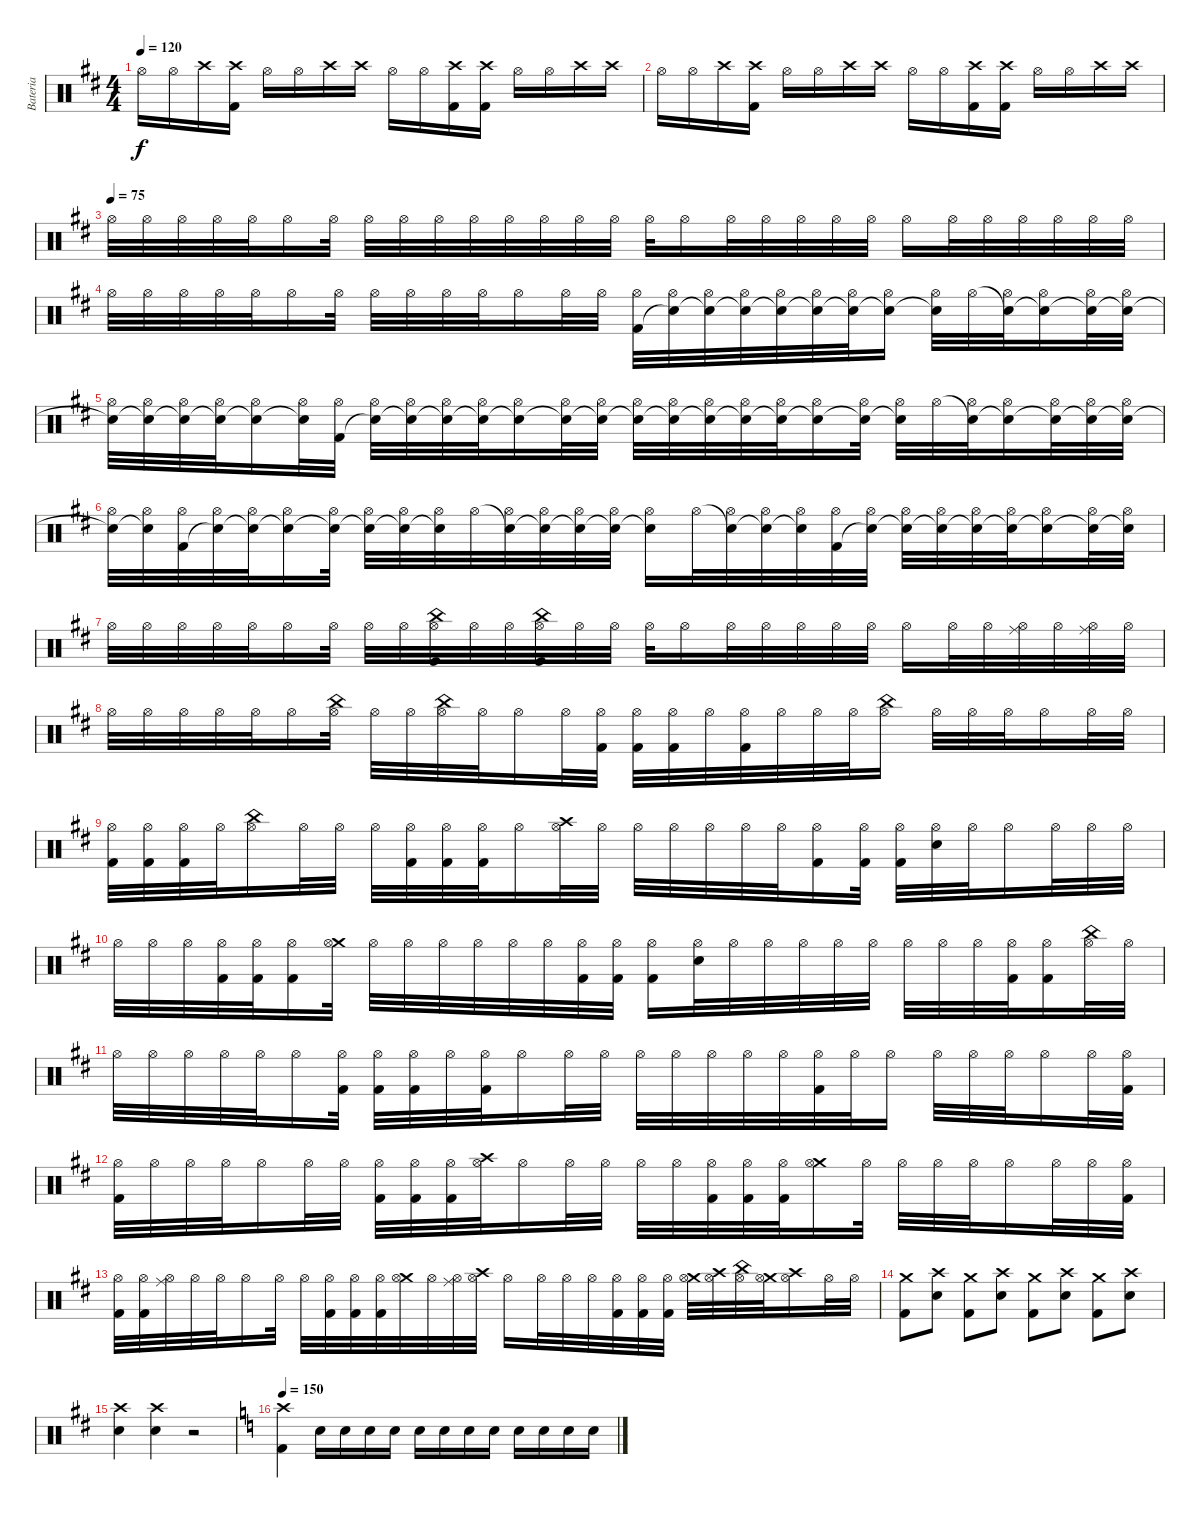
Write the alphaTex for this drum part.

\track ("Bateria" "Bateria") {instrument percussion}
\staff {score}
\articulation defaults
\ts (4 4)
\tempo 120
\clef neutral
\ks d "Hi-Hat (open)".16{dy f} "Hi-Hat (open)".16 "Crash high (hit)".16
("Kick (hit) 2" "Crash high (hit)").16 "Hi-Hat (open)".16 "Hi-Hat (open)".16 "Crash high (hit)".16 "Crash high (hit)".16 "Hi-Hat (open)".16 "Hi-Hat (open)".16 ("Kick (hit) 2" "Crash high (hit)").16 ("Kick (hit) 2" "Crash high (hit)").16 "Hi-Hat (open)".16 "Hi-Hat (open)".16 "Crash high (hit)".16 "Crash high (hit)".16 |
"Hi-Hat (open)".16 "Hi-Hat (open)".16 "Crash high (hit)".16 ("Kick (hit) 2" "Crash high (hit)").16 "Hi-Hat (open)".16 "Hi-Hat (open)".16 "Crash high (hit)".16 "Crash high (hit)".16 "Hi-Hat (open)".16 "Hi-Hat (open)".16 ("Kick (hit) 2" "Crash high (hit)").16 ("Kick (hit) 2" "Crash high (hit)").16 "Hi-Hat (open)".16 "Hi-Hat (open)".16 "Crash high (hit)".16 "Crash high (hit)".16 |
\tempo (75)
"Hi-Hat (open)".32{balance 8} "Hi-Hat (open)".32 "Hi-Hat (open)".32 "Hi-Hat (open)".32 "Hi-Hat (open)".32 "Hi-Hat (open)".16 "Hi-Hat (open)".32 "Hi-Hat (open)".32 "Hi-Hat (open)".32 "Hi-Hat (open)".32 "Hi-Hat (open)".32 "Hi-Hat (open)".32 "Hi-Hat (open)".32 "Hi-Hat (open)".32 "Hi-Hat (open)".32 "Hi-Hat (open)".32 "Hi-Hat (open)".16 "Hi-Hat (open)".32 "Hi-Hat (open)".32 "Hi-Hat (open)".32 "Hi-Hat (open)".32 "Hi-Hat (open)".32 "Hi-Hat (open)".16 "Hi-Hat (open)".32 "Hi-Hat (open)".32 "Hi-Hat (open)".32 "Hi-Hat (open)".32 "Hi-Hat (open)".32 "Hi-Hat (open)".32 |
"Hi-Hat (open)".32 "Hi-Hat (open)".32 "Hi-Hat (open)".32 "Hi-Hat (open)".32 "Hi-Hat (open)".32 "Hi-Hat (open)".16 "Hi-Hat (open)".32 "Hi-Hat (open)".32 "Hi-Hat (open)".32 "Hi-Hat (open)".32 "Hi-Hat (open)".32 "Hi-Hat (open)".16 "Hi-Hat (open)".32 "Hi-Hat (open)".32 ("Kick (hit) 2" "Hi-Hat (open)").32 ("Snare (hit)"{t} "Hi-Hat (open)").32 ("Snare (hit)"{t} "Hi-Hat (open)").32 ("Snare (hit)"{t} "Hi-Hat (open)").32 ("Snare (hit)"{t} "Hi-Hat (open)").32 ("Snare (hit)"{t} "Hi-Hat (open)").32 ("Snare (hit)"{t} "Hi-Hat (open)").32 ("Snare (hit)"{t} "Hi-Hat (open)").16 ("Snare (hit)"{t} "Hi-Hat (open)").32 "Hi-Hat (open)".32 ("Snare (hit)"{t} "Hi-Hat (open)").32 ("Snare (hit)"{t} "Hi-Hat (open)").16 ("Snare (hit)"{t} "Hi-Hat (open)").32 ("Snare (hit)"{t} "Hi-Hat (open)").32 |
("Snare (hit)"{t} "Hi-Hat (open)").32 ("Snare (hit)"{t} "Hi-Hat (open)").32 ("Snare (hit)"{t} "Hi-Hat (open)").32 ("Snare (hit)"{t} "Hi-Hat (open)").32 ("Snare (hit)"{t} "Hi-Hat (open)").16 ("Snare (hit)"{t} "Hi-Hat (open)").32 ("Kick (hit) 2" "Hi-Hat (open)").32 ("Snare (hit)"{t} "Hi-Hat (open)").32 ("Snare (hit)"{t} "Hi-Hat (open)").32 ("Snare (hit)"{t} "Hi-Hat (open)").32 ("Snare (hit)"{t} "Hi-Hat (open)").32 ("Snare (hit)"{t} "Hi-Hat (open)").16 ("Snare (hit)"{t} "Hi-Hat (open)").32 ("Snare (hit)"{t} "Hi-Hat (open)").32 ("Snare (hit)"{t} "Hi-Hat (open)").32 ("Snare (hit)"{t} "Hi-Hat (open)").32 ("Snare (hit)"{t} "Hi-Hat (open)").32 ("Snare (hit)"{t} "Hi-Hat (open)").32 ("Snare (hit)"{t} "Hi-Hat (open)").32 ("Snare (hit)"{t} "Hi-Hat (open)").16 ("Snare (hit)"{t} "Hi-Hat (open)").32 ("Snare (hit)"{t} "Hi-Hat (open)").32 "Hi-Hat (open)".32 ("Snare (hit)"{t} "Hi-Hat (open)").32 ("Snare (hit)"{t} "Hi-Hat (open)").16 ("Snare (hit)"{t} "Hi-Hat (open)").32 ("Snare (hit)"{t} "Hi-Hat (open)").32 ("Snare (hit)"{t} "Hi-Hat (open)").32 |
("Snare (hit)"{t} "Hi-Hat (open)").32 ("Snare (hit)"{t} "Hi-Hat (open)").32 ("Kick (hit) 2" "Hi-Hat (open)").32 ("Snare (hit)"{t} "Hi-Hat (open)").32 ("Snare (hit)"{t} "Hi-Hat (open)").32 ("Snare (hit)"{t} "Hi-Hat (open)").16 ("Snare (hit)"{t} "Hi-Hat (open)").32 ("Snare (hit)"{t} "Hi-Hat (open)").32 ("Snare (hit)"{t} "Hi-Hat (open)").32 ("Snare (hit)"{t} "Hi-Hat (open)").32 "Hi-Hat (open)".32 ("Snare (hit)"{t} "Hi-Hat (open)").32 ("Snare (hit)"{t} "Hi-Hat (open)").32 ("Snare (hit)"{t} "Hi-Hat (open)").32 ("Snare (hit)"{t} "Hi-Hat (open)").32 ("Snare (hit)"{t} "Hi-Hat (open)").16 "Hi-Hat (open)".32 ("Snare (hit)"{t} "Hi-Hat (open)").32 ("Snare (hit)"{t} "Hi-Hat (open)").32 ("Snare (hit)"{t} "Hi-Hat (open)").32 ("Kick (hit) 2" "Hi-Hat (open)").32 ("Snare (hit)"{t} "Hi-Hat (open)").32 ("Snare (hit)"{t} "Hi-Hat (open)").32 ("Snare (hit)"{t} "Hi-Hat (open)").32 ("Snare (hit)"{t} "Hi-Hat (open)").32 ("Snare (hit)"{t} "Hi-Hat (open)").32 ("Snare (hit)"{t} "Hi-Hat (open)").16 ("Snare (hit)"{t} "Hi-Hat (open)").32 ("Snare (hit)"{t} "Hi-Hat (open)").32 |
"Hi-Hat (open)".32 "Hi-Hat (open)".32 "Hi-Hat (open)".32 "Hi-Hat (open)".32 "Hi-Hat (open)".32 "Hi-Hat (open)".16 "Hi-Hat (open)".32 "Hi-Hat (open)".32 "Hi-Hat (open)".32 ("China (hit)" "Kick (hit) 2" "Hi-Hat (open)").32 "Hi-Hat (open)".32 "Hi-Hat (open)".32 ("China (hit)" "Kick (hit) 2" "Hi-Hat (open)").32 "Hi-Hat (open)".32 "Hi-Hat (open)".32 "Hi-Hat (open)".32 "Hi-Hat (open)".16 "Hi-Hat (open)".32 "Hi-Hat (open)".32 "Hi-Hat (open)".32 "Hi-Hat (open)".32 "Hi-Hat (open)".32 "Hi-Hat (open)".16 "Hi-Hat (open)".32 "Hi-Hat (open)".32 ("Ride (middle)" "Hi-Hat (open)").32 "Hi-Hat (open)".32 ("Ride (middle)" "Hi-Hat (open)").32 "Hi-Hat (open)".32 |
"Hi-Hat (open)".32 "Hi-Hat (open)".32 "Hi-Hat (open)".32 "Hi-Hat (open)".32 "Hi-Hat (open)".32 "Hi-Hat (open)".16 ("China (hit)" "Hi-Hat (open)").32 "Hi-Hat (open)".32 "Hi-Hat (open)".32 ("China (hit)" "Hi-Hat (open)").32 "Hi-Hat (open)".32 "Hi-Hat (open)".16 "Hi-Hat (open)".32 ("Kick (hit) 2" "Hi-Hat (open)").32 ("Kick (hit) 2" "Hi-Hat (open)").32 ("Kick (hit) 2" "Hi-Hat (open)").32 "Hi-Hat (open)".32 ("Kick (hit) 2" "Hi-Hat (open)").32 "Hi-Hat (open)".32 "Hi-Hat (open)".32 "Hi-Hat (open)".32 ("China (hit)" "Hi-Hat (open)").16 "Hi-Hat (open)".32 "Hi-Hat (open)".32 "Hi-Hat (open)".32 "Hi-Hat (open)".16 "Hi-Hat (open)".32 "Hi-Hat (open)".32 |
("Kick (hit) 2" "Hi-Hat (open)").32 ("Kick (hit) 2" "Hi-Hat (open)").32 ("Kick (hit) 2" "Hi-Hat (open)").32 "Hi-Hat (open)".32 ("China (hit)" "Hi-Hat (open)").16 "Hi-Hat (open)".32 "Hi-Hat (open)".32 "Hi-Hat (open)".32 ("Kick (hit) 2" "Hi-Hat (open)").32 ("Kick (hit) 2" "Hi-Hat (open)").32 ("Kick (hit) 2" "Hi-Hat (open)").32 "Hi-Hat (open)".16 ("Crash high (hit)" "Hi-Hat (open)").32 "Hi-Hat (open)".32 "Hi-Hat (open)".32 "Hi-Hat (open)".32 "Hi-Hat (open)".32 "Hi-Hat (open)".32 "Hi-Hat (open)".32 ("Kick (hit) 2" "Hi-Hat (open)").16 ("Kick (hit) 2" "Hi-Hat (open)").32 ("Kick (hit) 2" "Hi-Hat (open)").32 ("Electric Snare (hit)" "Hi-Hat (open)").32 "Hi-Hat (open)".32 "Hi-Hat (open)".16 "Hi-Hat (open)".32 "Hi-Hat (open)".32 "Hi-Hat (open)".32 |
"Hi-Hat (open)".32 "Hi-Hat (open)".32 "Hi-Hat (open)".32 ("Kick (hit) 2" "Hi-Hat (open)").32 ("Kick (hit) 2" "Hi-Hat (open)").32 ("Kick (hit) 2" "Hi-Hat (open)").16 ("Crash medium (hit)" "Hi-Hat (open)").32 "Hi-Hat (open)".32 "Hi-Hat (open)".32 "Hi-Hat (open)".32 "Hi-Hat (open)".32 "Hi-Hat (open)".32 "Hi-Hat (open)".32 ("Kick (hit) 2" "Hi-Hat (open)").32 ("Kick (hit) 2" "Hi-Hat (open)").32 ("Kick (hit) 2" "Hi-Hat (open)").16 ("Snare (hit) 2" "Hi-Hat (open)").32 "Hi-Hat (open)".32 "Hi-Hat (open)".32 "Hi-Hat (open)".32 "Hi-Hat (open)".32 "Hi-Hat (open)".32 "Hi-Hat (open)".32 "Hi-Hat (open)".32 "Hi-Hat (open)".32 ("Kick (hit) 2" "Hi-Hat (open)").32 ("Kick (hit) 2" "Hi-Hat (open)").16 ("China (hit)" "Hi-Hat (open)").32 "Hi-Hat (open)".32 |
"Hi-Hat (open)".32 "Hi-Hat (open)".32 "Hi-Hat (open)".32 "Hi-Hat (open)".32 "Hi-Hat (open)".32 "Hi-Hat (open)".16 ("Kick (hit) 2" "Hi-Hat (open)").32 ("Kick (hit) 2" "Hi-Hat (open)").32 ("Kick (hit) 2" "Hi-Hat (open)").32 "Hi-Hat (open)".32 ("Kick (hit) 2" "Hi-Hat (open)").32 "Hi-Hat (open)".16 "Hi-Hat (open)".32 "Hi-Hat (open)".32 "Hi-Hat (open)".32 "Hi-Hat (open)".32 "Hi-Hat (open)".32 "Hi-Hat (open)".32 "Hi-Hat (open)".32 ("Kick (hit) 2" "Hi-Hat (open)").32 "Hi-Hat (open)".32 "Hi-Hat (open)".16 "Hi-Hat (open)".32 "Hi-Hat (open)".32 "Hi-Hat (open)".32 "Hi-Hat (open)".16 "Hi-Hat (open)".32 ("Kick (hit) 2" "Hi-Hat (open)").32 |
("Kick (hit) 2" "Hi-Hat (open)").32 "Hi-Hat (open)".32 "Hi-Hat (open)".32 "Hi-Hat (open)".32 "Hi-Hat (open)".16 "Hi-Hat (open)".32 "Hi-Hat (open)".32 ("Kick (hit) 2" "Hi-Hat (open)").32 ("Kick (hit) 2" "Hi-Hat (open)").32 ("Kick (hit) 2" "Hi-Hat (open)").32 ("Crash high (hit)" "Hi-Hat (open)").32 "Hi-Hat (open)".16 "Hi-Hat (open)".32 "Hi-Hat (open)".32 "Hi-Hat (open)".32 "Hi-Hat (open)".32 ("Kick (hit) 2" "Hi-Hat (open)").32 ("Kick (hit) 2" "Hi-Hat (open)").32 ("Kick (hit) 2" "Hi-Hat (open)").32 ("Crash medium (hit)" "Hi-Hat (open)").16 "Hi-Hat (open)".32 "Hi-Hat (open)".32 "Hi-Hat (open)".32 "Hi-Hat (open)".32 "Hi-Hat (open)".16 "Hi-Hat (open)".32 "Hi-Hat (open)".32 ("Kick (hit) 2" "Hi-Hat (open)").32 |
("Kick (hit) 2" "Hi-Hat (open)").32 ("Kick (hit) 2" "Hi-Hat (open)").32 ("Ride (middle)" "Hi-Hat (open)").32 "Hi-Hat (open)".32 "Hi-Hat (open)".32 "Hi-Hat (open)".16 "Hi-Hat (open)".32 "Hi-Hat (open)".32 ("Kick (hit) 2" "Hi-Hat (open)").32 ("Kick (hit) 2" "Hi-Hat (open)").32 ("Kick (hit) 2" "Hi-Hat (open)").32 ("Crash medium (hit)" "Hi-Hat (open)").32 "Hi-Hat (open)".32 ("Ride (middle)" "Hi-Hat (open)").32 ("Crash high (hit)" "Hi-Hat (open)").32 "Hi-Hat (open)".16 "Hi-Hat (open)".32 "Hi-Hat (open)".32 "Hi-Hat (open)".32 ("Kick (hit) 2" "Hi-Hat (open)").32 ("Kick (hit) 2" "Hi-Hat (open)").32 ("Kick (hit) 2" "Hi-Hat (open)").32 ("Crash medium (hit)" "Hi-Hat (open)").32 ("Crash high (hit)" "Hi-Hat (open)").32 ("China (hit)" "Hi-Hat (open)").32 ("Crash medium (hit)" "Hi-Hat (open)").32 ("Crash high (hit)" "Hi-Hat (open)").16 "Hi-Hat (open)".32 "Hi-Hat (open)".32 |
("Crash medium (hit)" "Kick (hit) 2").8 ("Crash high (hit)" "Snare (hit) 2").8 ("Crash medium (hit)" "Kick (hit) 2").8 ("Crash high (hit)" "Snare (hit) 2").8 ("Crash medium (hit)" "Kick (hit) 2").8 ("Crash high (hit)" "Snare (hit) 2").8 ("Crash medium (hit)" "Kick (hit) 2").8 ("Crash high (hit)" "Snare (hit) 2").8 |
("Crash high (hit)" "Snare (hit) 2").4 ("Crash high (hit)" "Snare (hit) 2").4 r.2 |
\tempo 150
\ks c
("Crash high (hit)" "Kick (hit) 2").4 "Snare (hit) 2".16 "Snare (hit) 2".16 "Snare (hit) 2".16 "Snare (hit) 2".16 "Snare (hit) 2".16 "Snare (hit) 2".16 "Snare (hit) 2".16 "Snare (hit) 2".16 "Snare (hit) 2".16 "Snare (hit) 2".16 "Snare (hit) 2".16 "Snare (hit) 2".16
